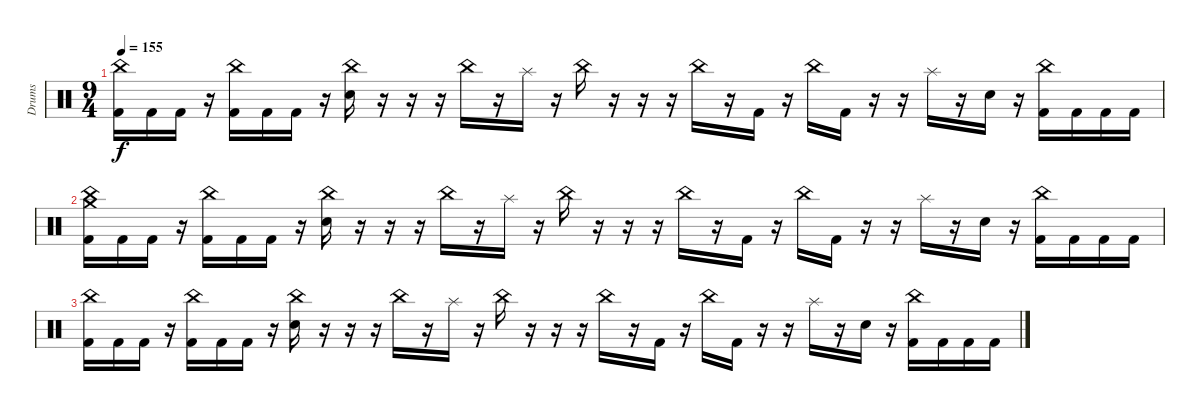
\track ("Drums" "Drums") {instrument percussion}
\staff {score}
\articulation defaults
\ts (9 4)
\tempo 155
\clef neutral
\ks c
("China (hit)" "Kick (hit) 2").16{dy f} "Kick (hit) 2".16 "Kick (hit) 2".16 r.16 ("China (hit)" "Kick (hit) 2").16 "Kick (hit) 2".16 "Kick (hit) 2".16 r.16 ("China (hit)" "Electric Snare (hit)").16 r.16 r.16 r.16 "China (hit)".16 r.16 "Splash (hit)".16 r.16 "China (hit)".16 r.16 r.16 r.16 "China (hit)".16 r.16 "Kick (hit) 2".16 r.16 "China (hit)".16 "Kick (hit) 2".16 r.16 r.16 "Splash (hit)".16 r.16 "Electric Snare (hit)".16 r.16 ("China (hit)" "Kick (hit) 2").16 "Kick (hit) 2".16 "Kick (hit) 2".16 "Kick (hit) 2".16 |
("China (hit)" "Crash medium (hit)" "Kick (hit) 2").16{volume 0} "Kick (hit) 2".16 "Kick (hit) 2".16 r.16 ("China (hit)" "Kick (hit) 2").16 "Kick (hit) 2".16 "Kick (hit) 2".16 r.16 ("China (hit)" "Electric Snare (hit)").16 r.16 r.16 r.16 "China (hit)".16 r.16 "Splash (hit)".16 r.16 "China (hit)".16 r.16 r.16 r.16 "China (hit)".16 r.16 "Kick (hit) 2".16 r.16 "China (hit)".16 "Kick (hit) 2".16 r.16 r.16 "Splash (hit)".16 r.16 "Electric Snare (hit)".16 r.16 ("China (hit)" "Kick (hit) 2").16 "Kick (hit) 2".16 "Kick (hit) 2".16 "Kick (hit) 2".16 |
("China (hit)" "Kick (hit) 2").16 "Kick (hit) 2".16 "Kick (hit) 2".16 r.16 ("China (hit)" "Kick (hit) 2").16 "Kick (hit) 2".16 "Kick (hit) 2".16 r.16 ("China (hit)" "Electric Snare (hit)").16 r.16 r.16 r.16 "China (hit)".16 r.16 "Splash (hit)".16 r.16 "China (hit)".16 r.16 r.16 r.16 "China (hit)".16 r.16 "Kick (hit) 2".16 r.16 "China (hit)".16 "Kick (hit) 2".16 r.16 r.16 "Splash (hit)".16 r.16 "Electric Snare (hit)".16 r.16 ("China (hit)" "Kick (hit) 2").16 "Kick (hit) 2".16 "Kick (hit) 2".16 "Kick (hit) 2".16
